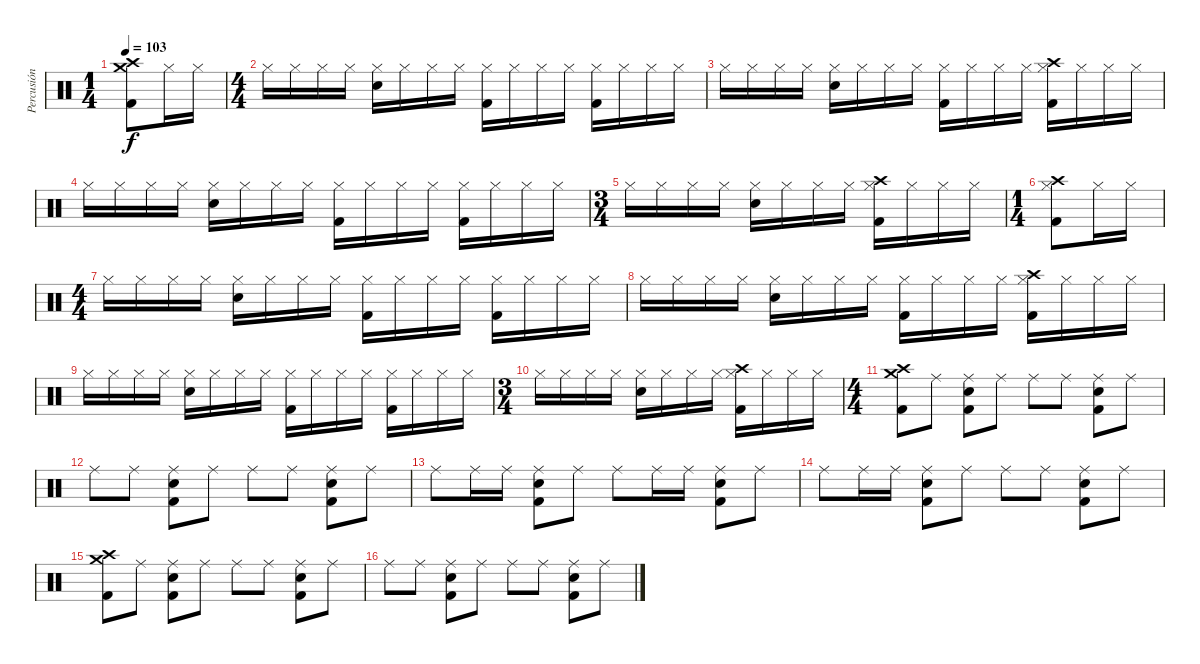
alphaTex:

\track ("Percusión" "Percusión") {instrument percussion}
\staff {score}
\articulation defaults
\ts (1 4)
\tempo 103
\clef neutral
\ks c
("Crash medium (hit)" "Crash high (hit)" "Kick (hit) 2").8{dy f} "Hi-Hat (closed)".16 "Hi-Hat (closed)".16 |
\ts (4 4)
"Hi-Hat (closed)".16 "Hi-Hat (closed)".16 "Hi-Hat (closed)".16 "Hi-Hat (closed)".16 ("Hi-Hat (closed)" "Snare (hit) 2").16 "Hi-Hat (closed)".16 "Hi-Hat (closed)".16 "Hi-Hat (closed)".16 ("Hi-Hat (closed)" "Kick (hit) 2").16 "Hi-Hat (closed)".16 "Hi-Hat (closed)".16 "Hi-Hat (closed)".16 ("Hi-Hat (closed)" "Kick (hit) 2").16 "Hi-Hat (closed)".16 "Hi-Hat (closed)".16 "Hi-Hat (closed)".16 |
"Hi-Hat (closed)".16 "Hi-Hat (closed)".16 "Hi-Hat (closed)".16 "Hi-Hat (closed)".16 ("Hi-Hat (closed)" "Snare (hit) 2").16 "Hi-Hat (closed)".16 "Hi-Hat (closed)".16 "Hi-Hat (closed)".16 ("Hi-Hat (closed)" "Kick (hit) 2").16 "Hi-Hat (closed)".16 "Hi-Hat (closed)".16 "Hi-Hat (closed)".16 ("Hi-Hat (closed)" "Crash high (hit)" "Kick (hit) 2").16 "Hi-Hat (closed)".16 "Hi-Hat (closed)".16 "Hi-Hat (closed)".16 |
"Hi-Hat (closed)".16 "Hi-Hat (closed)".16 "Hi-Hat (closed)".16 "Hi-Hat (closed)".16 ("Hi-Hat (closed)" "Snare (hit) 2").16 "Hi-Hat (closed)".16 "Hi-Hat (closed)".16 "Hi-Hat (closed)".16 ("Hi-Hat (closed)" "Kick (hit) 2").16 "Hi-Hat (closed)".16 "Hi-Hat (closed)".16 "Hi-Hat (closed)".16 ("Hi-Hat (closed)" "Kick (hit) 2").16 "Hi-Hat (closed)".16 "Hi-Hat (closed)".16 "Hi-Hat (closed)".16 |
\ts (3 4)
"Hi-Hat (closed)".16 "Hi-Hat (closed)".16 "Hi-Hat (closed)".16 "Hi-Hat (closed)".16 ("Hi-Hat (closed)" "Snare (hit) 2").16 "Hi-Hat (closed)".16 "Hi-Hat (closed)".16 "Hi-Hat (closed)".16 ("Hi-Hat (closed)" "Crash high (hit)" "Kick (hit) 2").16 "Hi-Hat (closed)".16 "Hi-Hat (closed)".16 "Hi-Hat (closed)".16 |
\ts (1 4)
("Hi-Hat (closed)" "Crash high (hit)" "Kick (hit) 2").8 "Hi-Hat (closed)".16 "Hi-Hat (closed)".16 |
\ts (4 4)
"Hi-Hat (closed)".16 "Hi-Hat (closed)".16 "Hi-Hat (closed)".16 "Hi-Hat (closed)".16 ("Hi-Hat (closed)" "Snare (hit) 2").16 "Hi-Hat (closed)".16 "Hi-Hat (closed)".16 "Hi-Hat (closed)".16 ("Hi-Hat (closed)" "Kick (hit) 2").16 "Hi-Hat (closed)".16 "Hi-Hat (closed)".16 "Hi-Hat (closed)".16 ("Hi-Hat (closed)" "Kick (hit) 2").16 "Hi-Hat (closed)".16 "Hi-Hat (closed)".16 "Hi-Hat (closed)".16 |
"Hi-Hat (closed)".16 "Hi-Hat (closed)".16 "Hi-Hat (closed)".16 "Hi-Hat (closed)".16 ("Hi-Hat (closed)" "Snare (hit) 2").16 "Hi-Hat (closed)".16 "Hi-Hat (closed)".16 "Hi-Hat (closed)".16 ("Hi-Hat (closed)" "Kick (hit) 2").16 "Hi-Hat (closed)".16 "Hi-Hat (closed)".16 "Hi-Hat (closed)".16 ("Hi-Hat (closed)" "Crash high (hit)" "Kick (hit) 2").16 "Hi-Hat (closed)".16 "Hi-Hat (closed)".16 "Hi-Hat (closed)".16 |
"Hi-Hat (closed)".16 "Hi-Hat (closed)".16 "Hi-Hat (closed)".16 "Hi-Hat (closed)".16 ("Hi-Hat (closed)" "Snare (hit) 2").16 "Hi-Hat (closed)".16 "Hi-Hat (closed)".16 "Hi-Hat (closed)".16 ("Hi-Hat (closed)" "Kick (hit) 2").16 "Hi-Hat (closed)".16 "Hi-Hat (closed)".16 "Hi-Hat (closed)".16 ("Hi-Hat (closed)" "Kick (hit) 2").16 "Hi-Hat (closed)".16 "Hi-Hat (closed)".16 "Hi-Hat (closed)".16 |
\ts (3 4)
"Hi-Hat (closed)".16 "Hi-Hat (closed)".16 "Hi-Hat (closed)".16 "Hi-Hat (closed)".16 ("Hi-Hat (closed)" "Snare (hit) 2").16 "Hi-Hat (closed)".16 "Hi-Hat (closed)".16 "Hi-Hat (closed)".16 ("Hi-Hat (closed)" "Crash high (hit)" "Kick (hit) 2").16 "Hi-Hat (closed)".16 "Hi-Hat (closed)".16 "Hi-Hat (closed)".16 |
\ts (4 4)
("Crash medium (hit)" "Crash high (hit)" "Kick (hit) 2").8 "Ride (middle)".8 ("Ride (middle)" "Snare (hit) 2" "Kick (hit) 2").8 "Ride (middle)".8 "Ride (middle)".8 "Ride (middle)".8 ("Ride (middle)" "Snare (hit) 2" "Kick (hit) 2").8 "Ride (middle)".8 |
"Ride (middle)".8 "Ride (middle)".8 ("Ride (middle)" "Snare (hit) 2" "Kick (hit) 2").8 "Ride (middle)".8 "Ride (middle)".8 "Ride (middle)".8 ("Ride (middle)" "Snare (hit) 2" "Kick (hit) 2").8 "Ride (middle)".8 |
"Ride (middle)".8 "Ride (middle)".16 "Ride (middle)".16 ("Ride (middle)" "Snare (hit) 2" "Kick (hit) 2").8 "Ride (middle)".8 "Ride (middle)".8 "Ride (middle)".16 "Ride (middle)".16 ("Ride (middle)" "Snare (hit) 2" "Kick (hit) 2").8 "Ride (middle)".8 |
"Ride (middle)".8 "Ride (middle)".16 "Ride (middle)".16 ("Ride (middle)" "Snare (hit) 2" "Kick (hit) 2").8 "Ride (middle)".8 "Ride (middle)".8 "Ride (middle)".8 ("Ride (middle)" "Snare (hit) 2" "Kick (hit) 2").8 "Ride (middle)".8 |
("Crash medium (hit)" "Crash high (hit)" "Kick (hit) 2").8 "Ride (middle)".8 ("Ride (middle)" "Snare (hit) 2" "Kick (hit) 2").8 "Ride (middle)".8 "Ride (middle)".8 "Ride (middle)".8 ("Ride (middle)" "Snare (hit) 2" "Kick (hit) 2").8 "Ride (middle)".8 |
"Ride (middle)".8 "Ride (middle)".8 ("Ride (middle)" "Snare (hit) 2" "Kick (hit) 2").8 "Ride (middle)".8 "Ride (middle)".8 "Ride (middle)".8 ("Ride (middle)" "Snare (hit) 2" "Kick (hit) 2").8 "Ride (middle)".8
